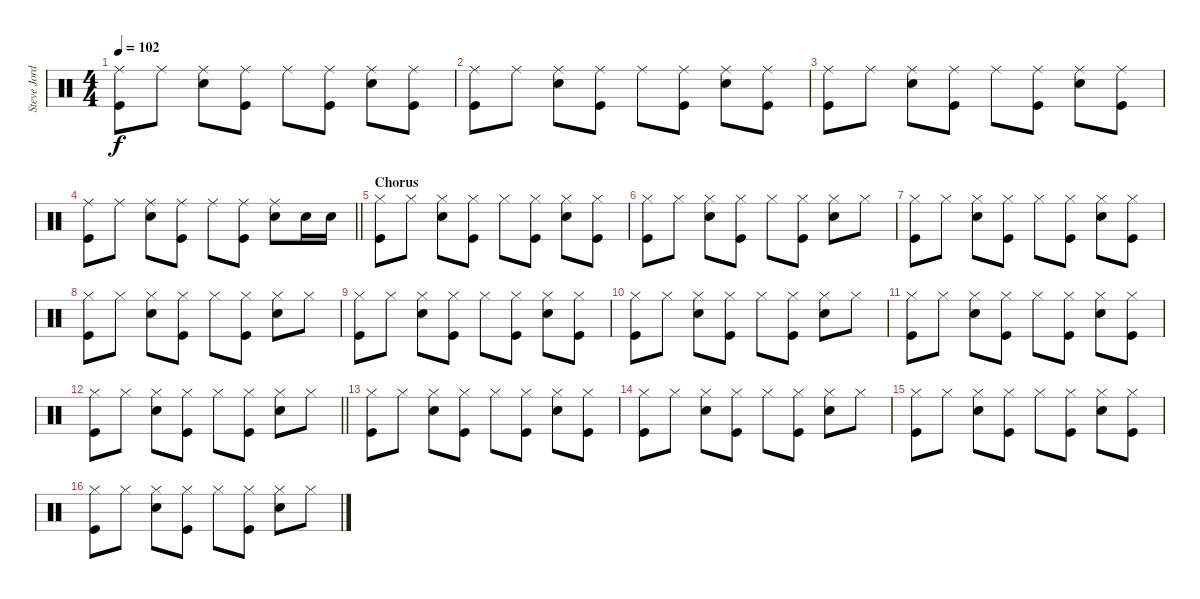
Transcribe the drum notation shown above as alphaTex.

\track ("Steve Jordan (Drums)" "Steve Jord") {instrument percussion}
\staff {score}
\articulation defaults
\ts (4 4)
\tempo 102
\clef neutral
\ks c
("Ride (middle)" "Kick (hit)").8{dy f} "Ride (middle)".8 ("Ride (middle)" "Snare (hit) 2").8 ("Ride (middle)" "Kick (hit)").8 "Ride (middle)".8 ("Ride (middle)" "Kick (hit)").8 ("Ride (middle)" "Snare (hit) 2").8 ("Ride (middle)" "Kick (hit)").8 |
("Ride (middle)" "Kick (hit)").8 "Ride (middle)".8 ("Ride (middle)" "Snare (hit) 2").8 ("Ride (middle)" "Kick (hit)").8 "Ride (middle)".8 ("Ride (middle)" "Kick (hit)").8 ("Ride (middle)" "Snare (hit) 2").8 ("Ride (middle)" "Kick (hit)").8 |
("Ride (middle)" "Kick (hit)").8 "Ride (middle)".8 ("Ride (middle)" "Snare (hit) 2").8 ("Ride (middle)" "Kick (hit)").8 "Ride (middle)".8 ("Ride (middle)" "Kick (hit)").8 ("Ride (middle)" "Snare (hit) 2").8 ("Ride (middle)" "Kick (hit)").8 |
\barLineRight lightlight
("Ride (middle)" "Kick (hit)").8 "Ride (middle)".8 ("Ride (middle)" "Snare (hit) 2").8 ("Ride (middle)" "Kick (hit)").8 "Ride (middle)".8 ("Ride (middle)" "Kick (hit)").8 ("Ride (middle)" "Snare (hit) 2").8 "Snare (hit) 2".16 "Snare (hit) 2".16 |
\section ("" "Chorus")
("Hi-Hat (closed)" "Kick (hit)").8 "Hi-Hat (closed)".8 ("Hi-Hat (closed)" "Snare (hit) 2").8 ("Hi-Hat (closed)" "Kick (hit)").8 "Hi-Hat (closed)".8 ("Hi-Hat (closed)" "Kick (hit)").8 ("Hi-Hat (closed)" "Snare (hit) 2").8 ("Hi-Hat (closed)" "Kick (hit)").8 |
("Hi-Hat (closed)" "Kick (hit)").8 "Hi-Hat (closed)".8 ("Hi-Hat (closed)" "Snare (hit) 2").8 ("Hi-Hat (closed)" "Kick (hit)").8 "Hi-Hat (closed)".8 ("Hi-Hat (closed)" "Kick (hit)").8 ("Hi-Hat (closed)" "Snare (hit) 2").8 "Hi-Hat (closed)".8 |
("Hi-Hat (closed)" "Kick (hit)").8 "Hi-Hat (closed)".8 ("Hi-Hat (closed)" "Snare (hit) 2").8 ("Hi-Hat (closed)" "Kick (hit)").8 "Hi-Hat (closed)".8 ("Hi-Hat (closed)" "Kick (hit)").8 ("Hi-Hat (closed)" "Snare (hit) 2").8 ("Hi-Hat (closed)" "Kick (hit)").8 |
("Hi-Hat (closed)" "Kick (hit)").8 "Hi-Hat (closed)".8 ("Hi-Hat (closed)" "Snare (hit) 2").8 ("Hi-Hat (closed)" "Kick (hit)").8 "Hi-Hat (closed)".8 ("Hi-Hat (closed)" "Kick (hit)").8 ("Hi-Hat (closed)" "Snare (hit) 2").8 "Hi-Hat (closed)".8 |
("Hi-Hat (closed)" "Kick (hit)").8 "Hi-Hat (closed)".8 ("Hi-Hat (closed)" "Snare (hit) 2").8 ("Hi-Hat (closed)" "Kick (hit)").8 "Hi-Hat (closed)".8 ("Hi-Hat (closed)" "Kick (hit)").8 ("Hi-Hat (closed)" "Snare (hit) 2").8 ("Hi-Hat (closed)" "Kick (hit)").8 |
("Hi-Hat (closed)" "Kick (hit)").8 "Hi-Hat (closed)".8 ("Hi-Hat (closed)" "Snare (hit) 2").8 ("Hi-Hat (closed)" "Kick (hit)").8 "Hi-Hat (closed)".8 ("Hi-Hat (closed)" "Kick (hit)").8 ("Hi-Hat (closed)" "Snare (hit) 2").8 "Hi-Hat (closed)".8 |
("Hi-Hat (closed)" "Kick (hit)").8 "Hi-Hat (closed)".8 ("Hi-Hat (closed)" "Snare (hit) 2").8 ("Hi-Hat (closed)" "Kick (hit)").8 "Hi-Hat (closed)".8 ("Hi-Hat (closed)" "Kick (hit)").8 ("Hi-Hat (closed)" "Snare (hit) 2").8 ("Hi-Hat (closed)" "Kick (hit)").8 |
\barLineRight lightlight
("Hi-Hat (closed)" "Kick (hit)").8 "Hi-Hat (closed)".8 ("Hi-Hat (closed)" "Snare (hit) 2").8 ("Hi-Hat (closed)" "Kick (hit)").8 "Hi-Hat (closed)".8 ("Hi-Hat (closed)" "Kick (hit)").8 ("Hi-Hat (closed)" "Snare (hit) 2").8 "Hi-Hat (closed)".8 |
("Hi-Hat (closed)" "Kick (hit)").8 "Hi-Hat (closed)".8 ("Hi-Hat (closed)" "Snare (hit) 2").8 ("Hi-Hat (closed)" "Kick (hit)").8 "Hi-Hat (closed)".8 ("Hi-Hat (closed)" "Kick (hit)").8 ("Hi-Hat (closed)" "Snare (hit) 2").8 ("Hi-Hat (closed)" "Kick (hit)").8 |
("Hi-Hat (closed)" "Kick (hit)").8 "Hi-Hat (closed)".8 ("Hi-Hat (closed)" "Snare (hit) 2").8 ("Hi-Hat (closed)" "Kick (hit)").8 "Hi-Hat (closed)".8 ("Hi-Hat (closed)" "Kick (hit)").8 ("Hi-Hat (closed)" "Snare (hit) 2").8 "Hi-Hat (closed)".8 |
("Hi-Hat (closed)" "Kick (hit)").8 "Hi-Hat (closed)".8 ("Hi-Hat (closed)" "Snare (hit) 2").8 ("Hi-Hat (closed)" "Kick (hit)").8 "Hi-Hat (closed)".8 ("Hi-Hat (closed)" "Kick (hit)").8 ("Hi-Hat (closed)" "Snare (hit) 2").8 ("Hi-Hat (closed)" "Kick (hit)").8 |
("Hi-Hat (closed)" "Kick (hit)").8 "Hi-Hat (closed)".8 ("Hi-Hat (closed)" "Snare (hit) 2").8 ("Hi-Hat (closed)" "Kick (hit)").8 "Hi-Hat (closed)".8 ("Hi-Hat (closed)" "Kick (hit)").8 ("Hi-Hat (closed)" "Snare (hit) 2").8 "Hi-Hat (closed)".8
